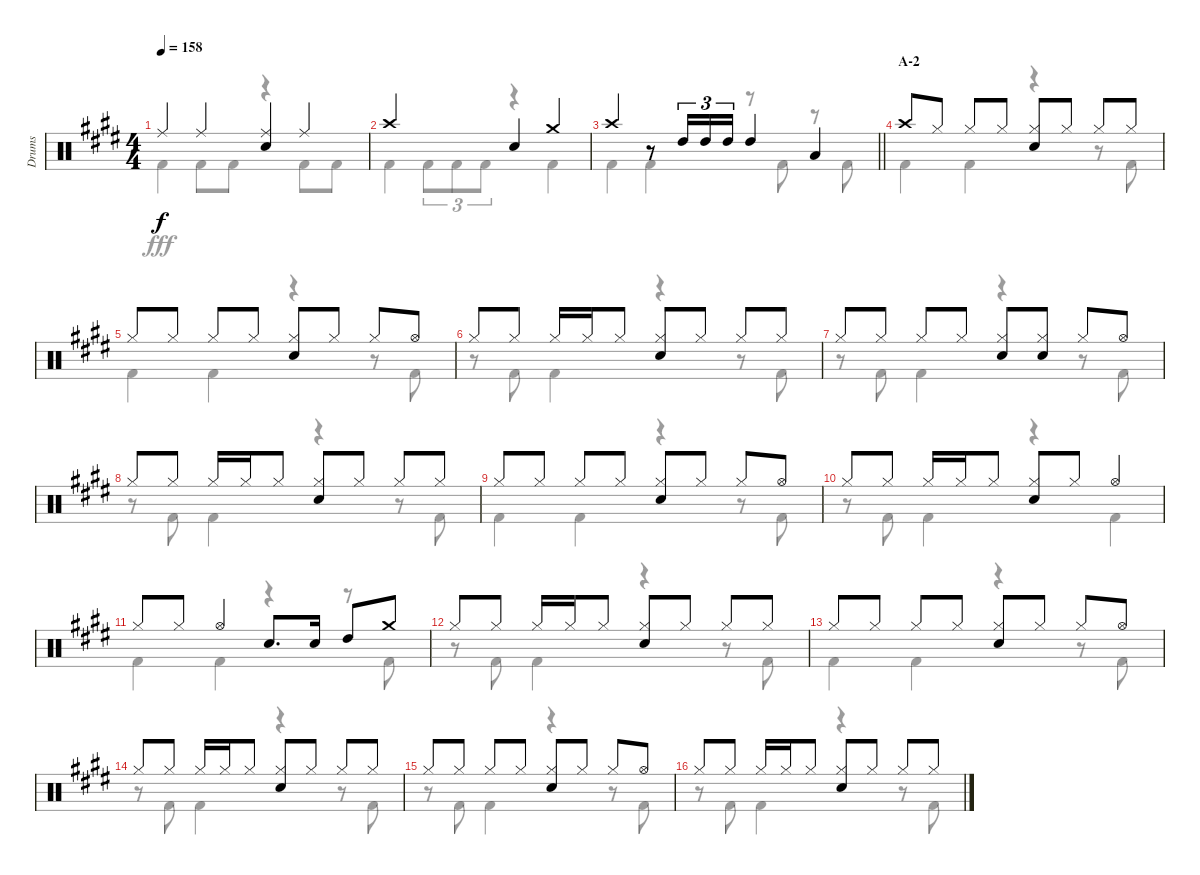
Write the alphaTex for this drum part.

\track ("Drums" "Drums") {instrument percussion}
\staff {score}
\articulation defaults
\voice
\ts (4 4)
\tempo 158
\clef neutral
\ks e "Ride (middle)".4{dy f} "Ride (middle)".4
("Ride (middle)" "Snare (hit) 2").4 "Ride (middle)".4 |
"Crash high (hit)".2 "Snare (hit) 2".4 "Crash medium (hit)".4 |
\barLineRight lightlight "Crash high (hit)".4
r.8 "High Tom (hit)".16{tu (3 2)} "High Tom (hit)".16{tu (3 2)} "High Tom (hit)".16{tu (3 2)} "High Tom (hit)".4 "Low Tom (hit)".4 |
\section ("" "A-2")
"Crash high (hit)".8 "Hi-Hat (closed)".8 "Hi-Hat (closed)".8 "Hi-Hat (closed)".8 ("Hi-Hat (closed)" "Snare (hit) 2").8 "Hi-Hat (closed)".8 "Hi-Hat (closed)".8 "Hi-Hat (closed)".8 |
"Hi-Hat (closed)".8 "Hi-Hat (closed)".8 "Hi-Hat (closed)".8 "Hi-Hat (closed)".8 ("Hi-Hat (closed)" "Snare (hit) 2").8 "Hi-Hat (closed)".8 "Hi-Hat (closed)".8 "Hi-Hat (open)".8 |
"Hi-Hat (closed)".8 "Hi-Hat (closed)".8 "Hi-Hat (closed)".16 "Hi-Hat (closed)".16 "Hi-Hat (closed)".8 ("Hi-Hat (closed)" "Snare (hit) 2").8 "Hi-Hat (closed)".8 "Hi-Hat (closed)".8 "Hi-Hat (closed)".8 |
"Hi-Hat (closed)".8 "Hi-Hat (closed)".8 "Hi-Hat (closed)".8 "Hi-Hat (closed)".8 ("Hi-Hat (closed)" "Snare (hit) 2").8 ("Hi-Hat (closed)" "Snare (hit) 2").8 "Hi-Hat (closed)".8 "Hi-Hat (open)".8 |
"Hi-Hat (closed)".8 "Hi-Hat (closed)".8 "Hi-Hat (closed)".16 "Hi-Hat (closed)".16 "Hi-Hat (closed)".8 ("Hi-Hat (closed)" "Snare (hit) 2").8 "Hi-Hat (closed)".8 "Hi-Hat (closed)".8 "Hi-Hat (closed)".8 |
"Hi-Hat (closed)".8 "Hi-Hat (closed)".8 "Hi-Hat (closed)".8 "Hi-Hat (closed)".8 ("Hi-Hat (closed)" "Snare (hit) 2").8 "Hi-Hat (closed)".8 "Hi-Hat (closed)".8 "Hi-Hat (open)".8 |
"Hi-Hat (closed)".8 "Hi-Hat (closed)".8 "Hi-Hat (closed)".16 "Hi-Hat (closed)".16 "Hi-Hat (closed)".8 ("Hi-Hat (closed)" "Snare (hit) 2").8 "Hi-Hat (closed)".8 "Hi-Hat (open)".4 |
"Hi-Hat (closed)".8 "Hi-Hat (closed)".8 "Hi-Hat (open)".4 "Snare (hit) 2".8{d} "Snare (hit) 2".16 "High Tom (hit)".8 "Crash medium (hit)".8 |
"Hi-Hat (closed)".8 "Hi-Hat (closed)".8 "Hi-Hat (closed)".16 "Hi-Hat (closed)".16 "Hi-Hat (closed)".8 ("Hi-Hat (closed)" "Snare (hit) 2").8 "Hi-Hat (closed)".8 "Hi-Hat (closed)".8 "Hi-Hat (closed)".8 |
"Hi-Hat (closed)".8 "Hi-Hat (closed)".8 "Hi-Hat (closed)".8 "Hi-Hat (closed)".8 ("Hi-Hat (closed)" "Snare (hit) 2").8 "Hi-Hat (closed)".8 "Hi-Hat (closed)".8 "Hi-Hat (open)".8 |
"Hi-Hat (closed)".8 "Hi-Hat (closed)".8 "Hi-Hat (closed)".16 "Hi-Hat (closed)".16 "Hi-Hat (closed)".8 ("Hi-Hat (closed)" "Snare (hit) 2").8 "Hi-Hat (closed)".8 "Hi-Hat (closed)".8 "Hi-Hat (closed)".8 |
"Hi-Hat (closed)".8 "Hi-Hat (closed)".8 "Hi-Hat (closed)".8 "Hi-Hat (closed)".8 ("Hi-Hat (closed)" "Snare (hit) 2").8 "Hi-Hat (closed)".8 "Hi-Hat (closed)".8 "Hi-Hat (open)".8 |
"Hi-Hat (closed)".8 "Hi-Hat (closed)".8 "Hi-Hat (closed)".16 "Hi-Hat (closed)".16 "Hi-Hat (closed)".8 ("Hi-Hat (closed)" "Snare (hit) 2").8 "Hi-Hat (closed)".8 "Hi-Hat (closed)".8 "Hi-Hat (closed)".8
\voice
\clef neutral
\ottava regular
\simile none
\ks e "Kick (hit) 2".4{dy fff} "Kick (hit) 2".8 "Kick (hit) 2".8
r.4 "Kick (hit) 2".8 "Kick (hit) 2".8 |
"Kick (hit) 2".4 "Kick (hit) 2".8{tu (3 2)} "Kick (hit) 2".8{tu (3 2)} "Kick (hit) 2".8{tu (3 2)} r.4 "Kick (hit) 2".4 |
\barLineRight lightlight "Kick (hit) 2".4 "Kick (hit) 2".4
r.8 "Kick (hit) 2".8 r.8 "Kick (hit) 2".8 |
"Kick (hit) 2".4 "Kick (hit) 2".4 r.4 r.8 "Kick (hit) 2".8 |
"Kick (hit) 2".4 "Kick (hit) 2".4 r.4 r.8 "Kick (hit) 2".8 |
r.8 "Kick (hit) 2".8 "Kick (hit) 2".4 r.4 r.8 "Kick (hit) 2".8 |
r.8 "Kick (hit) 2".8 "Kick (hit) 2".4 r.4 r.8 "Kick (hit) 2".8 |
r.8 "Kick (hit) 2".8 "Kick (hit) 2".4 r.4 r.8 "Kick (hit) 2".8 |
"Kick (hit) 2".4 "Kick (hit) 2".4 r.4 r.8 "Kick (hit) 2".8 |
r.8 "Kick (hit) 2".8 "Kick (hit) 2".4 r.4 "Kick (hit) 2".4 |
"Kick (hit) 2".4 "Kick (hit) 2".4 r.4 r.8 "Kick (hit) 2".8 |
r.8 "Kick (hit) 2".8 "Kick (hit) 2".4 r.4 r.8 "Kick (hit) 2".8 |
"Kick (hit) 2".4 "Kick (hit) 2".4 r.4 r.8 "Kick (hit) 2".8 |
r.8 "Kick (hit) 2".8 "Kick (hit) 2".4 r.4 r.8 "Kick (hit) 2".8 |
r.8 "Kick (hit) 2".8 "Kick (hit) 2".4 r.4 r.8 "Kick (hit) 2".8 |
r.8 "Kick (hit) 2".8 "Kick (hit) 2".4 r.4 r.8 "Kick (hit) 2".8
